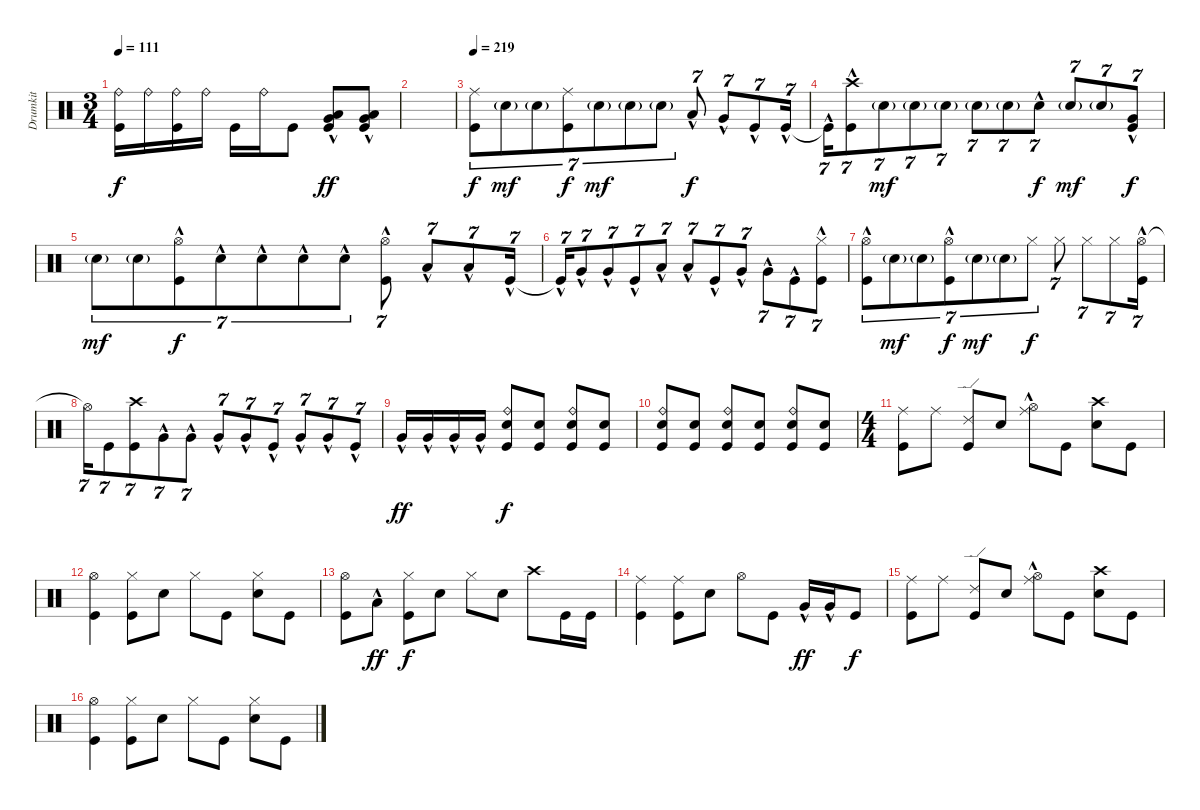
\track ("Drumkit" "Drumkit") {instrument percussion}
\staff {score}
\articulation defaults
\ts (3 4)
\tempo 111
\clef neutral
\ks c
("Kick (hit)" "Ride (bell)").16{dy f} "Ride (bell)".16 ("Ride (bell)" "Kick (hit)").16 "Ride (bell)".16 "Kick (hit)".16 "Ride (bell)".16 "Kick (hit)".8 ("Kick (hit)"{hac} "Very Low Tom (hit)"{hac} "Low Tom (hit)"{hac}).8{dy ff} ("Kick (hit)"{hac} "Very Low Tom (hit)"{hac} "Low Tom (hit)"{hac}).8 |
|
\tempo 219
("Ride (middle)" "Kick (hit)").8{tu (7 4) dy f} "Snare (hit) 2"{g}.8{tu (7 4) dy mf} "Snare (hit) 2"{g}.8{tu (7 4)} ("Ride (middle)" "Kick (hit)").8{tu (7 4) dy f} "Snare (hit) 2"{g}.8{tu (7 4) dy mf} "Snare (hit) 2"{g}.8{tu (7 4)} "Snare (hit) 2"{g}.8{tu (7 4)} "Low Tom (hit)"{hac}.8{tu (7 4) dy f} "Very Low Tom (hit)"{hac}.8{tu (7 4)} "Kick (hit)"{hac}.8{tu (7 4)} "Kick (hit)"{hac}.16{tu (7 4)} |
"Kick (hit)"{hac t}.16{tu (7 4)} ("Kick (hit)"{hac} "Crash high (hit)"{hac}).8{tu (7 4)} "Snare (hit) 2"{g}.8{tu (7 4) dy mf} "Snare (hit) 2"{g}.8{tu (7 4)} "Snare (hit) 2"{g}.8{tu (7 4)} "Snare (hit) 2"{g}.8{tu (7 4)} "Snare (hit) 2"{g}.8{tu (7 4)} "Snare (hit) 2"{hac}.8{tu (7 4) dy f} "Snare (hit) 2"{g}.8{tu (7 4) dy mf} "Snare (hit) 2"{g}.8{tu (7 4)} ("Very Low Tom (hit)"{hac} "Kick (hit)"{hac}).8{tu (7 4) dy f} |
"Snare (hit) 2"{g}.8{tu (7 4) dy mf} "Snare (hit) 2"{g}.8{tu (7 4)} ("Hi-Hat (open)"{hac} "Kick (hit)"{hac}).8{tu (7 4) dy f} "Snare (hit) 2"{hac}.8{tu (7 4)} "Snare (hit) 2"{hac}.8{tu (7 4)} "Snare (hit) 2"{hac}.8{tu (7 4)} "Snare (hit) 2"{hac}.8{tu (7 4)} ("Hi-Hat (open)"{hac} "Kick (hit)"{hac}).8{tu (7 4)} "Low Tom (hit)"{hac}.8{tu (7 4)} "Low Tom (hit)"{hac}.8{tu (7 4)} "Kick (hit)"{hac}.16{tu (7 4)} |
"Kick (hit)"{hac t}.16{tu (7 4)} "Very Low Tom (hit)"{hac}.8{tu (7 4)} "Very Low Tom (hit)"{hac}.8{tu (7 4)} "Kick (hit)"{hac}.8{tu (7 4)} "Low Tom (hit)"{hac}.8{tu (7 4)} "Low Tom (hit)"{hac}.8{tu (7 4)} "Kick (hit)"{hac}.8{tu (7 4)} "Very Low Tom (hit)"{hac}.8{tu (7 4)} "Very Low Tom (hit)"{hac}.8{tu (7 4)} "Kick (hit)"{hac}.8{tu (7 4)} ("Kick (hit)"{hac} "Hi-Hat (closed)"{hac}).8{tu (7 4)} |
("Hi-Hat (open)"{hac} "Kick (hit)"{hac}).8{tu (7 4)} "Snare (hit) 2"{g}.8{tu (7 4) dy mf} "Snare (hit) 2"{g}.8{tu (7 4)} ("Hi-Hat (open)"{hac} "Kick (hit)"{hac}).8{tu (7 4) dy f} "Snare (hit) 2"{g}.8{tu (7 4) dy mf} "Snare (hit) 2"{g}.8{tu (7 4)} "Hi-Hat (closed)".8{tu (7 4) dy f} "Hi-Hat (closed)".8{tu (7 4)} "Hi-Hat (closed)".8{tu (7 4)} "Hi-Hat (closed)".8{tu (7 4)} ("Hi-Hat (open)" "Kick (hit)"{hac}).16{tu (7 4)} |
"Hi-Hat (open)"{t}.16{tu (7 4)} "Kick (hit)".8{tu (7 4)} ("Kick (hit)" "Crash high (hit)").8{tu (7 4)} "Very Low Tom (hit)"{hac}.8{tu (7 4)} "Very Low Tom (hit)"{hac}.8{tu (7 4)} "Very Low Tom (hit)"{hac}.8{tu (7 4)} "Very Low Tom (hit)"{hac}.8{tu (7 4)} "Kick (hit)"{hac}.8{tu (7 4)} "Very Low Tom (hit)"{hac}.8{tu (7 4)} "Very Low Tom (hit)"{hac}.8{tu (7 4)} "Kick (hit)"{hac}.8{tu (7 4)} |
"Very Low Tom (hit)"{hac}.16{dy ff} "Very Low Tom (hit)"{hac}.16 "Very Low Tom (hit)"{hac}.16 "Very Low Tom (hit)"{hac}.16 ("Snare (hit) 2" "Kick (hit)" "Ride (bell)").8{dy f} ("Snare (hit) 2" "Kick (hit)").8 ("Snare (hit) 2" "Kick (hit)" "Ride (bell)").8 ("Snare (hit) 2" "Kick (hit)").8 |
("Snare (hit) 2" "Ride (bell)" "Kick (hit)").8 ("Snare (hit) 2" "Kick (hit)").8 ("Snare (hit) 2" "Ride (bell)" "Kick (hit)").8 ("Snare (hit) 2" "Kick (hit)").8 ("Snare (hit) 2" "Ride (bell)" "Kick (hit)").8 ("Snare (hit) 2" "Kick (hit)").8 |
\ts (4 4)
("Kick (hit)" "Ride (middle)").8 "Ride (middle)".8 ("Kick (hit)" "Ride (edge) 2").8 "Snare (hit) 2".8 ("Hi-Hat (open)"{hac} "Ride (middle)"{hac}).8 "Kick (hit)".8 ("Snare (hit) 2" "Crash high (hit)").8 "Kick (hit)".8 |
("Kick (hit)" "Hi-Hat (open)").4 ("Kick (hit)" "Hi-Hat (closed)").8 "Snare (hit) 2".8 "Hi-Hat (closed)".8 "Kick (hit)".8 ("Snare (hit) 2" "Hi-Hat (closed)").8 "Kick (hit)".8 |
("Kick (hit)" "Hi-Hat (open)").8 "Low Tom (hit)"{hac}.8{dy ff} ("Kick (hit)" "Hi-Hat (closed)").8{dy f} "Snare (hit) 2".8 "Hi-Hat (closed)".8 "Snare (hit) 2".8 "Crash high (hit)".8 "Kick (hit)".16 "Kick (hit)".16 |
("Kick (hit)" "Ride (middle)").4 ("Kick (hit)" "Ride (middle)").8 "Snare (hit) 2".8 "Hi-Hat (open)".8 "Kick (hit)".8 "Very Low Tom (hit)"{hac}.16{dy ff} "Very Low Tom (hit)"{hac}.16 "Kick (hit)".8{dy f} |
("Kick (hit)" "Ride (middle)").8 "Ride (middle)".8 ("Kick (hit)" "Ride (edge) 2").8 "Snare (hit) 2".8 ("Ride (middle)"{hac} "Hi-Hat (open)"{hac}).8 "Kick (hit)".8 ("Snare (hit) 2" "Crash high (hit)").8 "Kick (hit)".8 |
("Kick (hit)" "Hi-Hat (open)").4 ("Kick (hit)" "Hi-Hat (closed)").8 "Snare (hit) 2".8 "Hi-Hat (closed)".8 "Kick (hit)".8 ("Snare (hit) 2" "Hi-Hat (closed)").8 "Kick (hit)".8
